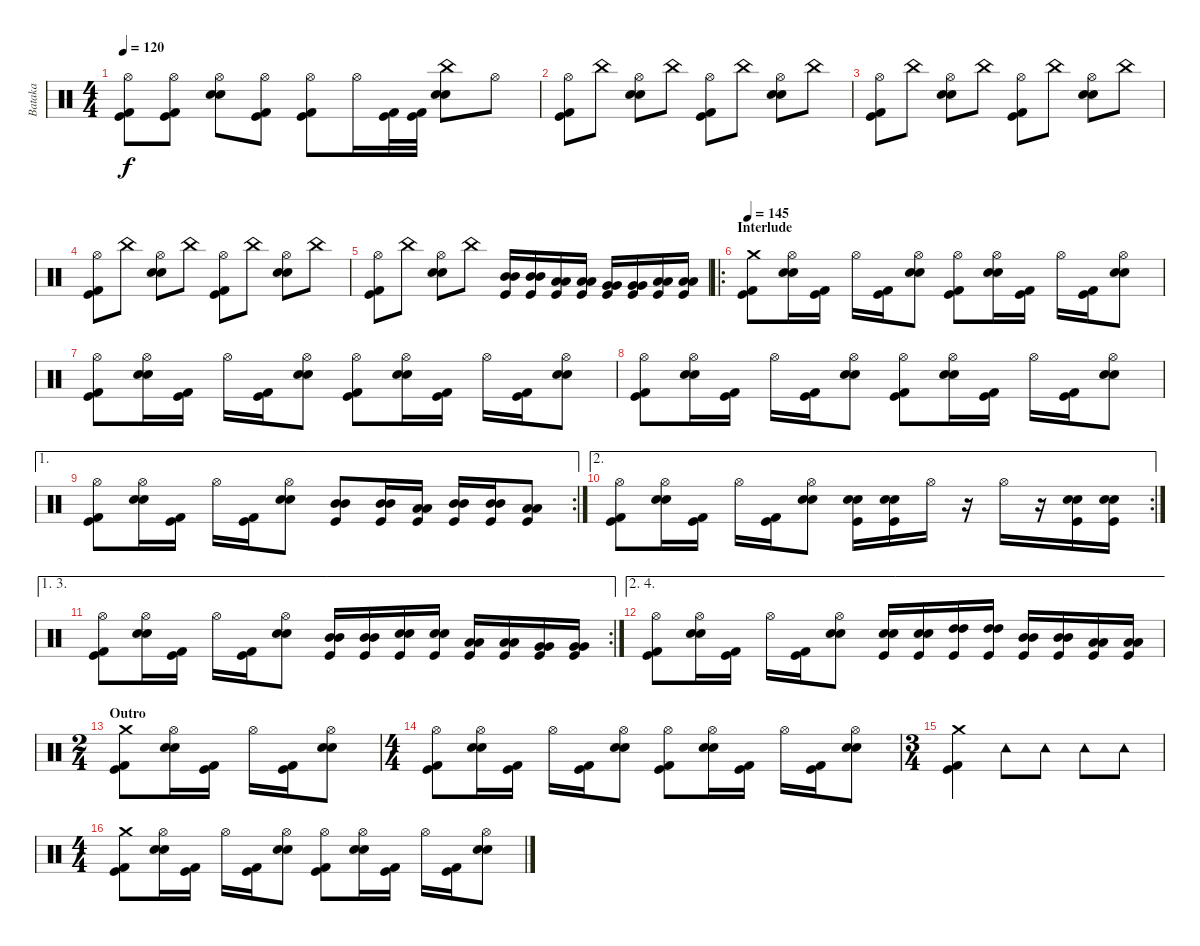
\track ("Bataka" "Bataka") {instrument percussion}
\staff {score}
\articulation defaults
\ts (4 4)
\tempo 120
\clef neutral
\ks c
("Hi-Hat (open)" "Kick (hit) 2" "Kick (hit)").8{dy f} ("Hi-Hat (open)" "Kick (hit) 2" "Kick (hit)").8 ("Hi-Hat (open)" "Snare (hit) 2" "Snare (hit) 2").8 ("Hi-Hat (open)" "Kick (hit) 2" "Kick (hit)").8 ("Hi-Hat (open)" "Kick (hit) 2" "Kick (hit)").8 "Hi-Hat (open)".16 ("Kick (hit) 2" "Kick (hit)").32 ("Kick (hit) 2" "Kick (hit)").32 ("China (hit)" "Snare (hit) 2" "Snare (hit) 2").8 "Hi-Hat (open)".8 |
("Hi-Hat (open)" "Kick (hit) 2" "Kick (hit)").8 "China (hit)".8 ("Hi-Hat (open)" "Snare (hit) 2" "Snare (hit) 2").8 "China (hit)".8 ("Hi-Hat (open)" "Kick (hit) 2" "Kick (hit)").8 "China (hit)".8 ("Hi-Hat (open)" "Snare (hit) 2" "Snare (hit) 2").8 "China (hit)".8 |
("Hi-Hat (open)" "Kick (hit) 2" "Kick (hit)").8 "China (hit)".8 ("Hi-Hat (open)" "Snare (hit) 2" "Snare (hit) 2").8 "China (hit)".8 ("Hi-Hat (open)" "Kick (hit) 2" "Kick (hit)").8 "China (hit)".8 ("Hi-Hat (open)" "Snare (hit) 2" "Snare (hit) 2").8 "China (hit)".8 |
("Hi-Hat (open)" "Kick (hit) 2" "Kick (hit)").8 "China (hit)".8 ("Hi-Hat (open)" "Snare (hit) 2" "Snare (hit) 2").8 "China (hit)".8 ("Hi-Hat (open)" "Kick (hit) 2" "Kick (hit)").8 "China (hit)".8 ("Hi-Hat (open)" "Snare (hit) 2" "Snare (hit) 2").8 "China (hit)".8 |
("Hi-Hat (open)" "Kick (hit) 2" "Kick (hit)").8 "China (hit)".8 ("Hi-Hat (open)" "Snare (hit) 2" "Snare (hit) 2").8 "China (hit)".8 ("Mid Tom (hit)" "Mid Tom (hit)" "Kick (hit)").16 ("Mid Tom (hit)" "Mid Tom (hit)" "Kick (hit)").16 ("Low Tom (hit)" "Low Tom (hit)" "Kick (hit)").16 ("Low Tom (hit)" "Low Tom (hit)" "Kick (hit)").16 ("Very Low Tom (hit)" "Very Low Tom (hit)" "Kick (hit)").16 ("Very Low Tom (hit)" "Very Low Tom (hit)" "Kick (hit)").16 ("Low Floor Tom (hit)" "Low Floor Tom (hit)" "Kick (hit)").16 ("Low Floor Tom (hit)" "Low Floor Tom (hit)" "Kick (hit)").16 |
\ro
\section ("" "Interlude")
\tempo 145
("Crash medium (hit)" "Kick (hit) 2" "Kick (hit)").8 ("Hi-Hat (open)" "Snare (hit) 2" "Snare (hit) 2").16 ("Kick (hit) 2" "Kick (hit)").16 "Hi-Hat (open)".16 ("Kick (hit) 2" "Kick (hit)").16 ("Hi-Hat (open)" "Snare (hit) 2" "Snare (hit) 2").8 ("Hi-Hat (open)" "Kick (hit) 2" "Kick (hit)").8 ("Hi-Hat (open)" "Snare (hit) 2" "Snare (hit) 2").16 ("Kick (hit) 2" "Kick (hit)").16 "Hi-Hat (open)".16 ("Kick (hit) 2" "Kick (hit)").16 ("Hi-Hat (open)" "Snare (hit) 2" "Snare (hit) 2").8 |
("Hi-Hat (open)" "Kick (hit) 2" "Kick (hit)").8 ("Hi-Hat (open)" "Snare (hit) 2" "Snare (hit) 2").16 ("Kick (hit) 2" "Kick (hit)").16 "Hi-Hat (open)".16 ("Kick (hit) 2" "Kick (hit)").16 ("Hi-Hat (open)" "Snare (hit) 2" "Snare (hit) 2").8 ("Hi-Hat (open)" "Kick (hit) 2" "Kick (hit)").8 ("Hi-Hat (open)" "Snare (hit) 2" "Snare (hit) 2").16 ("Kick (hit) 2" "Kick (hit)").16 "Hi-Hat (open)".16 ("Kick (hit) 2" "Kick (hit)").16 ("Hi-Hat (open)" "Snare (hit) 2" "Snare (hit) 2").8 |
("Hi-Hat (open)" "Kick (hit) 2" "Kick (hit)").8 ("Hi-Hat (open)" "Snare (hit) 2" "Snare (hit) 2").16 ("Kick (hit) 2" "Kick (hit)").16 "Hi-Hat (open)".16 ("Kick (hit) 2" "Kick (hit)").16 ("Hi-Hat (open)" "Snare (hit) 2" "Snare (hit) 2").8 ("Hi-Hat (open)" "Kick (hit) 2" "Kick (hit)").8 ("Hi-Hat (open)" "Snare (hit) 2" "Snare (hit) 2").16 ("Kick (hit) 2" "Kick (hit)").16 "Hi-Hat (open)".16 ("Kick (hit) 2" "Kick (hit)").16 ("Hi-Hat (open)" "Snare (hit) 2" "Snare (hit) 2").8 |
\ae 1
\rc 2
("Hi-Hat (open)" "Kick (hit) 2" "Kick (hit)").8 ("Hi-Hat (open)" "Snare (hit) 2" "Snare (hit) 2").16 ("Kick (hit) 2" "Kick (hit)").16 "Hi-Hat (open)".16 ("Kick (hit) 2" "Kick (hit)").16 ("Hi-Hat (open)" "Snare (hit) 2" "Snare (hit) 2").8 ("Mid Tom (hit)" "Mid Tom (hit)" "Kick (hit)").8 ("Mid Tom (hit)" "Mid Tom (hit)" "Kick (hit)").16 ("Low Tom (hit)" "Low Tom (hit)" "Kick (hit)").16 ("Mid Tom (hit)" "Mid Tom (hit)" "Kick (hit)").16 ("Mid Tom (hit)" "Mid Tom (hit)" "Kick (hit)").16 ("Low Tom (hit)" "Low Tom (hit)" "Kick (hit)").8 |
\ae 2
\rc 2
("Hi-Hat (open)" "Kick (hit) 2" "Kick (hit)").8 ("Hi-Hat (open)" "Snare (hit) 2" "Snare (hit) 2").16 ("Kick (hit) 2" "Kick (hit)").16 "Hi-Hat (open)".16 ("Kick (hit) 2" "Kick (hit)").16 ("Hi-Hat (open)" "Snare (hit) 2" "Snare (hit) 2").8 ("Snare (hit) 2" "Snare (hit) 2" "Kick (hit)").16 ("Snare (hit) 2" "Snare (hit) 2" "Kick (hit)").16 "Hi-Hat (open)".16 r.16 "Hi-Hat (open)".16 r.16 ("Snare (hit) 2" "Snare (hit) 2" "Kick (hit)").16 ("Snare (hit) 2" "Snare (hit) 2" "Kick (hit)").16 |
\ae (1 3)
\rc 2
("Hi-Hat (open)" "Kick (hit) 2" "Kick (hit)").8 ("Hi-Hat (open)" "Snare (hit) 2" "Snare (hit) 2").16 ("Kick (hit) 2" "Kick (hit)").16 "Hi-Hat (open)".16 ("Kick (hit) 2" "Kick (hit)").16 ("Hi-Hat (open)" "Snare (hit) 2" "Snare (hit) 2").8 ("Mid Tom (hit)" "Mid Tom (hit)" "Kick (hit)").16 ("Mid Tom (hit)" "Mid Tom (hit)" "Kick (hit)").16 ("Snare (hit) 2" "Snare (hit) 2" "Kick (hit)").16 ("Snare (hit) 2" "Snare (hit) 2" "Kick (hit)").16 ("Low Tom (hit)" "Low Tom (hit)" "Kick (hit)").16 ("Low Tom (hit)" "Low Tom (hit)" "Kick (hit)").16 ("Very Low Tom (hit)" "Very Low Tom (hit)" "Kick (hit)").16 ("Very Low Tom (hit)" "Very Low Tom (hit)" "Kick (hit)").16 |
\ae (2 4)
("Hi-Hat (open)" "Kick (hit) 2" "Kick (hit)").8 ("Hi-Hat (open)" "Snare (hit) 2" "Snare (hit) 2").16 ("Kick (hit) 2" "Kick (hit)").16 "Hi-Hat (open)".16 ("Kick (hit) 2" "Kick (hit)").16 ("Hi-Hat (open)" "Snare (hit) 2" "Snare (hit) 2").8 ("Snare (hit) 2" "Snare (hit) 2" "Kick (hit)").16 ("Snare (hit) 2" "Snare (hit) 2" "Kick (hit)").16 ("High Tom (hit)" "High Tom (hit)" "Kick (hit)").16 ("High Tom (hit)" "High Tom (hit)" "Kick (hit)").16 ("Mid Tom (hit)" "Mid Tom (hit)" "Kick (hit)").16 ("Mid Tom (hit)" "Mid Tom (hit)" "Kick (hit)").16 ("Low Tom (hit)" "Low Tom (hit)" "Kick (hit)").16 ("Low Tom (hit)" "Low Tom (hit)" "Kick (hit)").16 |
\ts (2 4)
\section ("" "Outro")
("Crash medium (hit)" "Kick (hit) 2" "Kick (hit)").8 ("Hi-Hat (open)" "Snare (hit) 2" "Snare (hit) 2").16 ("Kick (hit) 2" "Kick (hit)").16 "Hi-Hat (open)".16 ("Kick (hit) 2" "Kick (hit)").16 ("Hi-Hat (open)" "Snare (hit) 2" "Snare (hit) 2").8 |
\ts (4 4)
("Hi-Hat (open)" "Kick (hit) 2" "Kick (hit)").8 ("Hi-Hat (open)" "Snare (hit) 2" "Snare (hit) 2").16 ("Kick (hit) 2" "Kick (hit)").16 "Hi-Hat (open)".16 ("Kick (hit) 2" "Kick (hit)").16 ("Hi-Hat (open)" "Snare (hit) 2" "Snare (hit) 2").8 ("Hi-Hat (open)" "Kick (hit) 2" "Kick (hit)").8 ("Hi-Hat (open)" "Snare (hit) 2" "Snare (hit) 2").16 ("Kick (hit) 2" "Kick (hit)").16 "Hi-Hat (open)".16 ("Kick (hit) 2" "Kick (hit)").16 ("Hi-Hat (open)" "Snare (hit) 2" "Snare (hit) 2").8 |
\ts (3 4)
("Crash medium (hit)" "Kick (hit) 2" "Kick (hit)").4 "Tambourine (hit)".8 "Tambourine (hit)".8 "Tambourine (hit)".8 "Tambourine (hit)".8 |
\ts (4 4)
("Crash medium (hit)" "Kick (hit) 2" "Kick (hit)").8 ("Hi-Hat (open)" "Snare (hit) 2" "Snare (hit) 2").16 ("Kick (hit) 2" "Kick (hit)").16 "Hi-Hat (open)".16 ("Kick (hit) 2" "Kick (hit)").16 ("Hi-Hat (open)" "Snare (hit) 2" "Snare (hit) 2").8 ("Hi-Hat (open)" "Kick (hit) 2" "Kick (hit)").8 ("Hi-Hat (open)" "Snare (hit) 2" "Snare (hit) 2").16 ("Kick (hit) 2" "Kick (hit)").16 "Hi-Hat (open)".16 ("Kick (hit) 2" "Kick (hit)").16 ("Hi-Hat (open)" "Snare (hit) 2" "Snare (hit) 2").8
